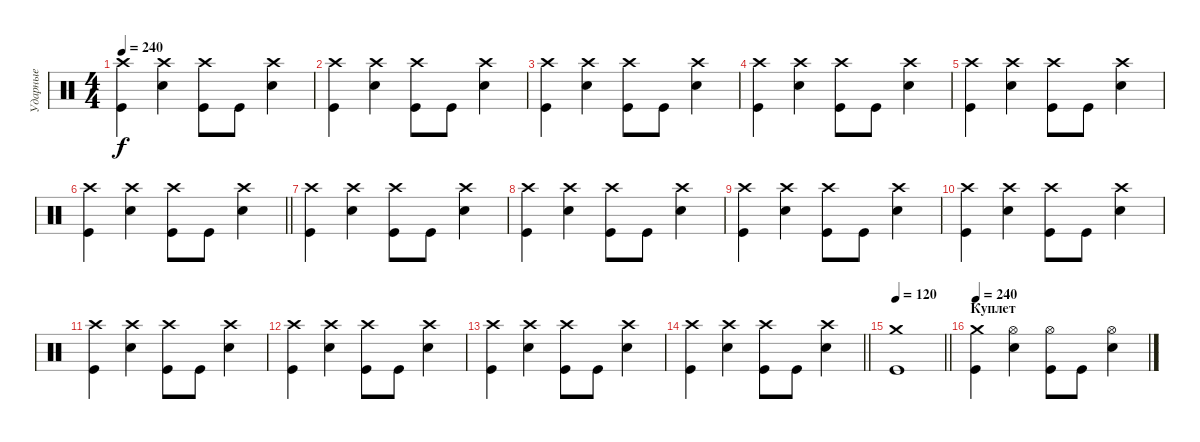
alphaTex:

\track ("Ударные" "Ударные") {instrument percussion}
\staff {score}
\articulation defaults
\ts (4 4)
\tempo 240
\clef neutral
\ks c
("Crash high (hit)" "Kick (hit)").4{dy f} ("Crash high (hit)" "Electric Snare (hit)").4 ("Crash high (hit)" "Kick (hit)").8 "Kick (hit)".8 ("Crash high (hit)" "Electric Snare (hit)").4 |
("Crash high (hit)" "Kick (hit)").4 ("Crash high (hit)" "Electric Snare (hit)").4 ("Crash high (hit)" "Kick (hit)").8 "Kick (hit)".8 ("Crash high (hit)" "Electric Snare (hit)").4 |
("Crash high (hit)" "Kick (hit)").4 ("Crash high (hit)" "Electric Snare (hit)").4 ("Crash high (hit)" "Kick (hit)").8 "Kick (hit)".8 ("Crash high (hit)" "Electric Snare (hit)").4 |
("Crash high (hit)" "Kick (hit)").4 ("Crash high (hit)" "Electric Snare (hit)").4 ("Crash high (hit)" "Kick (hit)").8 "Kick (hit)".8 ("Crash high (hit)" "Electric Snare (hit)").4 |
("Crash high (hit)" "Kick (hit)").4 ("Crash high (hit)" "Electric Snare (hit)").4 ("Crash high (hit)" "Kick (hit)").8 "Kick (hit)".8 ("Crash high (hit)" "Electric Snare (hit)").4 |
\barLineRight lightlight
("Crash high (hit)" "Kick (hit)").4 ("Crash high (hit)" "Electric Snare (hit)").4 ("Crash high (hit)" "Kick (hit)").8 "Kick (hit)".8 ("Crash high (hit)" "Electric Snare (hit)").4 |
\section ("" " ")
("Crash high (hit)" "Kick (hit)").4 ("Crash high (hit)" "Electric Snare (hit)").4 ("Crash high (hit)" "Kick (hit)").8 "Kick (hit)".8 ("Crash high (hit)" "Electric Snare (hit)").4 |
("Crash high (hit)" "Kick (hit)").4 ("Crash high (hit)" "Electric Snare (hit)").4 ("Crash high (hit)" "Kick (hit)").8 "Kick (hit)".8 ("Crash high (hit)" "Electric Snare (hit)").4 |
("Crash high (hit)" "Kick (hit)").4 ("Crash high (hit)" "Electric Snare (hit)").4 ("Crash high (hit)" "Kick (hit)").8 "Kick (hit)".8 ("Crash high (hit)" "Electric Snare (hit)").4 |
("Crash high (hit)" "Kick (hit)").4 ("Crash high (hit)" "Electric Snare (hit)").4 ("Crash high (hit)" "Kick (hit)").8 "Kick (hit)".8 ("Crash high (hit)" "Electric Snare (hit)").4 |
("Crash high (hit)" "Kick (hit)").4 ("Crash high (hit)" "Electric Snare (hit)").4 ("Crash high (hit)" "Kick (hit)").8 "Kick (hit)".8 ("Crash high (hit)" "Electric Snare (hit)").4 |
("Crash high (hit)" "Kick (hit)").4 ("Crash high (hit)" "Electric Snare (hit)").4 ("Crash high (hit)" "Kick (hit)").8 "Kick (hit)".8 ("Crash high (hit)" "Electric Snare (hit)").4 |
("Crash high (hit)" "Kick (hit)").4 ("Crash high (hit)" "Electric Snare (hit)").4 ("Crash high (hit)" "Kick (hit)").8 "Kick (hit)".8 ("Crash high (hit)" "Electric Snare (hit)").4 |
\barLineRight lightlight
("Crash high (hit)" "Kick (hit)").4 ("Crash high (hit)" "Electric Snare (hit)").4 ("Crash high (hit)" "Kick (hit)").8 "Kick (hit)".8 ("Crash high (hit)" "Electric Snare (hit)").4 |
\tempo 120
\barLineRight lightlight
("Crash medium (hit)" "Kick (hit)").1 |
\section ("" "Куплет")
\tempo 240
("Crash medium (hit)" "Kick (hit)").4 ("Hi-Hat (open)" "Electric Snare (hit)").4 ("Hi-Hat (open)" "Kick (hit)").8 "Kick (hit)".8 ("Hi-Hat (open)" "Electric Snare (hit)").4
